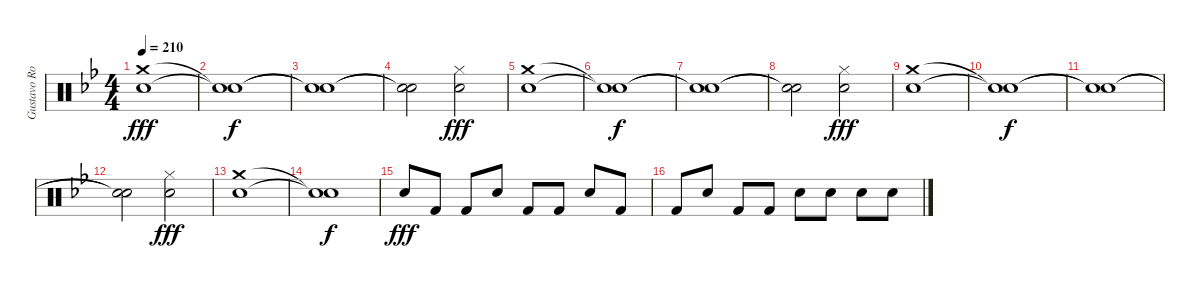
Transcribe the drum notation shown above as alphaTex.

\track ("Gustavo Rowek" "Gustavo Ro") {instrument percussion}
\staff {score}
\articulation defaults
\ts (4 4)
\tempo 210
\clef neutral
\ks gminor
("Crash medium (hit)" "Snare (hit) 2").1{dy fff} |
("Snare (hit)"{t} "Snare (hit)"{t}).1{dy f} |
("Snare (hit)"{t} "Snare (hit)"{t}).1 |
("Snare (hit)"{t} "Snare (hit) 2"{t}).2 ("Hi-Hat (closed)" "Snare (hit) 2").2{dy fff} |
("Crash medium (hit)" "Snare (hit) 2").1 |
("Snare (hit)"{t} "Snare (hit)"{t}).1{dy f} |
("Snare (hit)"{t} "Snare (hit)"{t}).1 |
("Snare (hit)"{t} "Snare (hit) 2"{t}).2 ("Hi-Hat (closed)" "Snare (hit) 2").2{dy fff} |
("Crash medium (hit)" "Snare (hit) 2").1 |
("Snare (hit)"{t} "Snare (hit)"{t}).1{dy f} |
("Snare (hit)"{t} "Snare (hit)"{t}).1 |
("Snare (hit)"{t} "Snare (hit) 2"{t}).2 ("Hi-Hat (closed)" "Snare (hit) 2").2{dy fff} |
("Crash medium (hit)" "Snare (hit) 2").1 |
("Snare (hit)"{t} "Snare (hit)"{t}).1{dy f} |
"Snare (hit) 2".8{dy fff} "Kick (hit) 2".8 "Kick (hit) 2".8 "Snare (hit) 2".8 "Kick (hit) 2".8 "Kick (hit) 2".8 "Snare (hit) 2".8 "Kick (hit) 2".8 |
"Kick (hit) 2".8 "Snare (hit) 2".8 "Kick (hit) 2".8 "Kick (hit) 2".8 "Snare (hit) 2".8 "Snare (hit) 2".8 "Snare (hit) 2".8 "Snare (hit) 2".8
